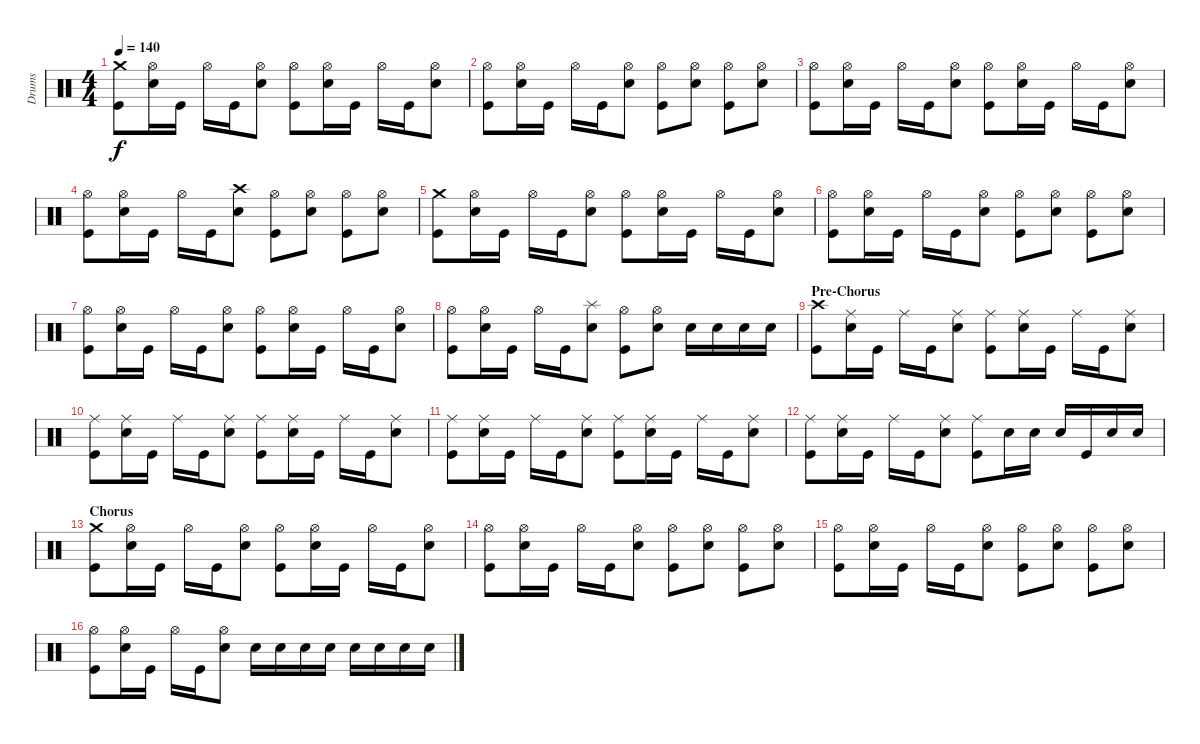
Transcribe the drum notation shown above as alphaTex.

\track ("Drums" "Drums") {instrument percussion}
\staff {score}
\articulation defaults
\ts (4 4)
\tempo 140
\clef neutral
\ks c
("Crash medium (hit)" "Kick (hit)").8{dy f} ("Hi-Hat (open)" "Snare (hit) 2").16 "Kick (hit)".16 "Hi-Hat (open)".16 "Kick (hit)".16 ("Hi-Hat (open)" "Snare (hit) 2").8 ("Hi-Hat (open)" "Kick (hit)").8 ("Hi-Hat (open)" "Snare (hit) 2").16 "Kick (hit)".16 "Hi-Hat (open)".16 "Kick (hit)".16 ("Hi-Hat (open)" "Snare (hit) 2").8 |
("Hi-Hat (open)" "Kick (hit)").8 ("Hi-Hat (open)" "Snare (hit) 2").16 "Kick (hit)".16 "Hi-Hat (open)".16 "Kick (hit)".16 ("Hi-Hat (open)" "Snare (hit) 2").8 ("Hi-Hat (open)" "Kick (hit)").8 ("Hi-Hat (open)" "Snare (hit) 2").8 ("Hi-Hat (open)" "Kick (hit)").8 ("Hi-Hat (open)" "Snare (hit) 2").8 |
("Hi-Hat (open)" "Kick (hit)").8 ("Hi-Hat (open)" "Snare (hit) 2").16 "Kick (hit)".16 "Hi-Hat (open)".16 "Kick (hit)".16 ("Hi-Hat (open)" "Snare (hit) 2").8 ("Hi-Hat (open)" "Kick (hit)").8 ("Hi-Hat (open)" "Snare (hit) 2").16 "Kick (hit)".16 "Hi-Hat (open)".16 "Kick (hit)".16 ("Hi-Hat (open)" "Snare (hit) 2").8 |
("Hi-Hat (open)" "Kick (hit)").8 ("Hi-Hat (open)" "Snare (hit) 2").16 "Kick (hit)".16 "Hi-Hat (open)".16 "Kick (hit)".16 ("Crash high (hit)" "Snare (hit) 2").8 ("Hi-Hat (open)" "Kick (hit)").8 ("Hi-Hat (open)" "Snare (hit) 2").8 ("Hi-Hat (open)" "Kick (hit)").8 ("Hi-Hat (open)" "Snare (hit) 2").8 |
("Crash medium (hit)" "Kick (hit)").8 ("Hi-Hat (open)" "Snare (hit) 2").16 "Kick (hit)".16 "Hi-Hat (open)".16 "Kick (hit)".16 ("Hi-Hat (open)" "Snare (hit) 2").8 ("Hi-Hat (open)" "Kick (hit)").8 ("Hi-Hat (open)" "Snare (hit) 2").16 "Kick (hit)".16 "Hi-Hat (open)".16 "Kick (hit)".16 ("Hi-Hat (open)" "Snare (hit) 2").8 |
("Hi-Hat (open)" "Kick (hit)").8 ("Hi-Hat (open)" "Snare (hit) 2").16 "Kick (hit)".16 "Hi-Hat (open)".16 "Kick (hit)".16 ("Hi-Hat (open)" "Snare (hit) 2").8 ("Hi-Hat (open)" "Kick (hit)").8 ("Hi-Hat (open)" "Snare (hit) 2").8 ("Hi-Hat (open)" "Kick (hit)").8 ("Hi-Hat (open)" "Snare (hit) 2").8 |
("Hi-Hat (open)" "Kick (hit)").8 ("Hi-Hat (open)" "Snare (hit) 2").16 "Kick (hit)".16 "Hi-Hat (open)".16 "Kick (hit)".16 ("Hi-Hat (open)" "Snare (hit) 2").8 ("Hi-Hat (open)" "Kick (hit)").8 ("Hi-Hat (open)" "Snare (hit) 2").16 "Kick (hit)".16 "Hi-Hat (open)".16 "Kick (hit)".16 ("Hi-Hat (open)" "Snare (hit) 2").8 |
("Hi-Hat (open)" "Kick (hit)").8 ("Hi-Hat (open)" "Snare (hit) 2").16 "Kick (hit)".16 "Hi-Hat (open)".16 "Kick (hit)".16 ("Splash (hit)" "Snare (hit) 2").8 ("Hi-Hat (open)" "Kick (hit)").8 ("Hi-Hat (open)" "Snare (hit) 2").8 "Snare (hit) 2".16 "Snare (hit) 2".16 "Snare (hit) 2".16 "Snare (hit) 2".16 |
\section ("" "Pre-Chorus")
("Crash high (hit)" "Kick (hit)").8 ("Ride (middle)" "Snare (hit) 2").16 "Kick (hit)".16 "Ride (middle)".16 "Kick (hit)".16 ("Ride (middle)" "Snare (hit) 2").8 ("Ride (middle)" "Kick (hit)").8 ("Ride (middle)" "Snare (hit) 2").16 "Kick (hit)".16 "Ride (middle)".16 "Kick (hit)".16 ("Ride (middle)" "Snare (hit) 2").8 |
("Ride (middle)" "Kick (hit)").8 ("Ride (middle)" "Snare (hit) 2").16 "Kick (hit)".16 "Ride (middle)".16 "Kick (hit)".16 ("Ride (middle)" "Snare (hit) 2").8 ("Ride (middle)" "Kick (hit)").8 ("Ride (middle)" "Snare (hit) 2").16 "Kick (hit)".16 "Ride (middle)".16 "Kick (hit)".16 ("Ride (middle)" "Snare (hit) 2").8 |
("Ride (middle)" "Kick (hit)").8 ("Ride (middle)" "Snare (hit) 2").16 "Kick (hit)".16 "Ride (middle)".16 "Kick (hit)".16 ("Ride (middle)" "Snare (hit) 2").8 ("Ride (middle)" "Kick (hit)").8 ("Ride (middle)" "Snare (hit) 2").16 "Kick (hit)".16 "Ride (middle)".16 "Kick (hit)".16 ("Ride (middle)" "Snare (hit) 2").8 |
("Ride (middle)" "Kick (hit)").8 ("Ride (middle)" "Snare (hit) 2").16 "Kick (hit)".16 "Ride (middle)".16 "Kick (hit)".16 ("Ride (middle)" "Snare (hit) 2").8 ("Ride (middle)" "Kick (hit)").8 "Snare (hit) 2".16 "Snare (hit) 2".16 "Snare (hit) 2".16 "Kick (hit)".16 "Snare (hit) 2".16 "Snare (hit) 2".16 |
\section ("" "Chorus")
("Crash medium (hit)" "Kick (hit)").8 ("Hi-Hat (open)" "Snare (hit) 2").16 "Kick (hit)".16 "Hi-Hat (open)".16 "Kick (hit)".16 ("Hi-Hat (open)" "Snare (hit) 2").8 ("Hi-Hat (open)" "Kick (hit)").8 ("Hi-Hat (open)" "Snare (hit) 2").16 "Kick (hit)".16 "Hi-Hat (open)".16 "Kick (hit)".16 ("Hi-Hat (open)" "Snare (hit) 2").8 |
("Hi-Hat (open)" "Kick (hit)").8 ("Hi-Hat (open)" "Snare (hit) 2").16 "Kick (hit)".16 "Hi-Hat (open)".16 "Kick (hit)".16 ("Hi-Hat (open)" "Snare (hit) 2").8 ("Hi-Hat (open)" "Kick (hit)").8 ("Hi-Hat (open)" "Snare (hit) 2").8 ("Hi-Hat (open)" "Kick (hit)").8 ("Hi-Hat (open)" "Snare (hit) 2").8 |
("Hi-Hat (open)" "Kick (hit)").8 ("Hi-Hat (open)" "Snare (hit) 2").16 "Kick (hit)".16 "Hi-Hat (open)".16 "Kick (hit)".16 ("Hi-Hat (open)" "Snare (hit) 2").8 ("Hi-Hat (open)" "Kick (hit)").8 ("Hi-Hat (open)" "Snare (hit) 2").8 ("Hi-Hat (open)" "Kick (hit)").8 ("Hi-Hat (open)" "Snare (hit) 2").8 |
("Hi-Hat (open)" "Kick (hit)").8 ("Hi-Hat (open)" "Snare (hit) 2").16 "Kick (hit)".16 "Hi-Hat (open)".16 "Kick (hit)".16 ("Hi-Hat (open)" "Snare (hit) 2").8 "Snare (hit) 2".16 "Snare (hit) 2".16 "Snare (hit) 2".16 "Snare (hit) 2".16 "Snare (hit) 2".16 "Snare (hit) 2".16 "Snare (hit) 2".16 "Snare (hit) 2".16
